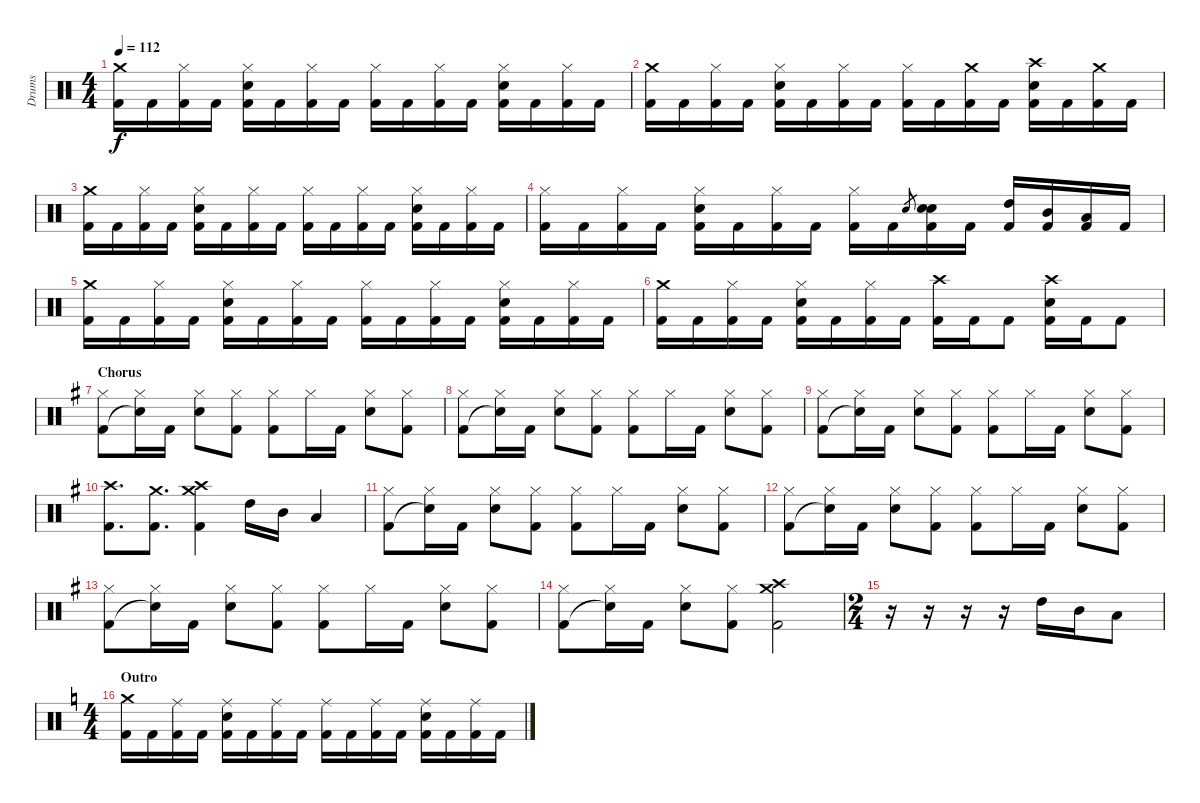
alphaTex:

\track ("Drums" "Drums") {instrument percussion}
\staff {score}
\articulation defaults
\ts (4 4)
\tempo 112
\clef neutral
\ks c
("Kick (hit) 2" "Crash medium (hit)").16{dy f} "Kick (hit) 2".16 ("Kick (hit) 2" "Hi-Hat (closed)").16 "Kick (hit) 2".16 ("Kick (hit) 2" "Hi-Hat (closed)" "Snare (hit) 2").16 "Kick (hit) 2".16 ("Kick (hit) 2" "Hi-Hat (closed)").16 "Kick (hit) 2".16 ("Kick (hit) 2" "Hi-Hat (closed)").16 "Kick (hit) 2".16 ("Kick (hit) 2" "Hi-Hat (closed)").16 "Kick (hit) 2".16 ("Kick (hit) 2" "Hi-Hat (closed)" "Snare (hit) 2").16 "Kick (hit) 2".16 ("Kick (hit) 2" "Hi-Hat (closed)").16 "Kick (hit) 2".16 |
("Kick (hit) 2" "Crash medium (hit)").16 "Kick (hit) 2".16 ("Kick (hit) 2" "Hi-Hat (closed)").16 "Kick (hit) 2".16 ("Kick (hit) 2" "Hi-Hat (closed)" "Snare (hit) 2").16 "Kick (hit) 2".16 ("Kick (hit) 2" "Hi-Hat (closed)").16 "Kick (hit) 2".16 ("Kick (hit) 2" "Hi-Hat (closed)").16 "Kick (hit) 2".16 ("Kick (hit) 2" "Crash medium (hit)").16 "Kick (hit) 2".16 ("Kick (hit) 2" "Crash high (hit)" "Snare (hit) 2").16 "Kick (hit) 2".16 ("Kick (hit) 2" "Crash medium (hit)").16 "Kick (hit) 2".16 |
("Kick (hit) 2" "Crash medium (hit)").16 "Kick (hit) 2".16 ("Kick (hit) 2" "Hi-Hat (closed)").16 "Kick (hit) 2".16 ("Kick (hit) 2" "Hi-Hat (closed)" "Snare (hit) 2").16 "Kick (hit) 2".16 ("Kick (hit) 2" "Hi-Hat (closed)").16 "Kick (hit) 2".16 ("Kick (hit) 2" "Hi-Hat (closed)").16 "Kick (hit) 2".16 ("Kick (hit) 2" "Hi-Hat (closed)").16 "Kick (hit) 2".16 ("Kick (hit) 2" "Hi-Hat (closed)" "Snare (hit) 2").16 "Kick (hit) 2".16 ("Kick (hit) 2" "Hi-Hat (closed)").16 "Kick (hit) 2".16 |
("Kick (hit) 2" "Hi-Hat (closed)").16 "Kick (hit) 2".16 ("Kick (hit) 2" "Hi-Hat (closed)").16 "Kick (hit) 2".16 ("Kick (hit) 2" "Hi-Hat (closed)" "Snare (hit) 2").16 "Kick (hit) 2".16 ("Kick (hit) 2" "Hi-Hat (closed)").16 "Kick (hit) 2".16 ("Kick (hit) 2" "Hi-Hat (closed)").16 "Kick (hit) 2".16 "Snare (hit) 2".8{gr} ("Kick (hit) 2" "Snare (hit) 2" "Snare (hit) 2").16 "Kick (hit) 2".16 ("Kick (hit) 2" "High Tom (hit)").16 ("Kick (hit) 2" "Mid Tom (hit)").16 ("Kick (hit) 2" "Low Tom (hit)").16 "Kick (hit) 2".16 |
("Kick (hit) 2" "Crash medium (hit)").16 "Kick (hit) 2".16 ("Kick (hit) 2" "Hi-Hat (closed)").16 "Kick (hit) 2".16 ("Kick (hit) 2" "Hi-Hat (closed)" "Snare (hit) 2").16 "Kick (hit) 2".16 ("Kick (hit) 2" "Hi-Hat (closed)").16 "Kick (hit) 2".16 ("Kick (hit) 2" "Hi-Hat (closed)").16 "Kick (hit) 2".16 ("Kick (hit) 2" "Hi-Hat (closed)").16 "Kick (hit) 2".16 ("Kick (hit) 2" "Hi-Hat (closed)" "Snare (hit) 2").16 "Kick (hit) 2".16 ("Kick (hit) 2" "Hi-Hat (closed)").16 "Kick (hit) 2".16 |
("Kick (hit) 2" "Crash medium (hit)").16 "Kick (hit) 2".16 ("Kick (hit) 2" "Hi-Hat (closed)").16 "Kick (hit) 2".16 ("Kick (hit) 2" "Hi-Hat (closed)" "Snare (hit) 2").16 "Kick (hit) 2".16 ("Kick (hit) 2" "Hi-Hat (closed)").16 "Kick (hit) 2".16 ("Kick (hit) 2" "Crash high (hit)").16 "Kick (hit) 2".16 "Kick (hit) 2".8 ("Kick (hit) 2" "Crash high (hit)" "Snare (hit) 2").16 "Kick (hit) 2".16 "Kick (hit) 2".8 |
\section ("" "Chorus")
\ks g
("Kick (hit) 2" "Hi-Hat (closed)").8 ("Snare (hit)"{t} "Hi-Hat (closed)").16 "Kick (hit) 2".16 ("Snare (hit) 2" "Hi-Hat (closed)").8 ("Kick (hit) 2" "Hi-Hat (closed)").8 ("Kick (hit) 2" "Hi-Hat (closed)").8 "Hi-Hat (closed)".16 "Kick (hit) 2".16 ("Snare (hit) 2" "Hi-Hat (closed)").8 ("Kick (hit) 2" "Hi-Hat (closed)").8 |
("Kick (hit) 2" "Hi-Hat (closed)").8 ("Snare (hit)"{t} "Hi-Hat (closed)").16 "Kick (hit) 2".16 ("Snare (hit) 2" "Hi-Hat (closed)").8 ("Kick (hit) 2" "Hi-Hat (closed)").8 ("Kick (hit) 2" "Hi-Hat (closed)").8 "Hi-Hat (closed)".16 "Kick (hit) 2".16 ("Snare (hit) 2" "Hi-Hat (closed)").8 ("Kick (hit) 2" "Hi-Hat (closed)").8 |
("Kick (hit) 2" "Hi-Hat (closed)").8 ("Snare (hit)"{t} "Hi-Hat (closed)").16 "Kick (hit) 2".16 ("Snare (hit) 2" "Hi-Hat (closed)").8 ("Kick (hit) 2" "Hi-Hat (closed)").8 ("Kick (hit) 2" "Hi-Hat (closed)").8 "Hi-Hat (closed)".16 "Kick (hit) 2".16 ("Snare (hit) 2" "Hi-Hat (closed)").8 ("Kick (hit) 2" "Hi-Hat (closed)").8 |
("Kick (hit) 2" "Crash high (hit)").8{d} ("Kick (hit) 2" "Crash medium (hit)").8{d} ("Kick (hit) 2" "Crash high (hit)" "Crash medium (hit)").4 "High Tom (hit)".16 "Mid Tom (hit)".16 "Low Tom (hit)".4 |
("Kick (hit) 2" "Hi-Hat (closed)").8 ("Snare (hit)"{t} "Hi-Hat (closed)").16 "Kick (hit) 2".16 ("Snare (hit) 2" "Hi-Hat (closed)").8 ("Kick (hit) 2" "Hi-Hat (closed)").8 ("Kick (hit) 2" "Hi-Hat (closed)").8 "Hi-Hat (closed)".16 "Kick (hit) 2".16 ("Snare (hit) 2" "Hi-Hat (closed)").8 ("Kick (hit) 2" "Hi-Hat (closed)").8 |
("Kick (hit) 2" "Hi-Hat (closed)").8 ("Snare (hit)"{t} "Hi-Hat (closed)").16 "Kick (hit) 2".16 ("Snare (hit) 2" "Hi-Hat (closed)").8 ("Kick (hit) 2" "Hi-Hat (closed)").8 ("Kick (hit) 2" "Hi-Hat (closed)").8 "Hi-Hat (closed)".16 "Kick (hit) 2".16 ("Snare (hit) 2" "Hi-Hat (closed)").8 ("Kick (hit) 2" "Hi-Hat (closed)").8 |
("Kick (hit) 2" "Hi-Hat (closed)").8 ("Snare (hit)"{t} "Hi-Hat (closed)").16 "Kick (hit) 2".16 ("Snare (hit) 2" "Hi-Hat (closed)").8 ("Kick (hit) 2" "Hi-Hat (closed)").8 ("Kick (hit) 2" "Hi-Hat (closed)").8 "Hi-Hat (closed)".16 "Kick (hit) 2".16 ("Snare (hit) 2" "Hi-Hat (closed)").8 ("Kick (hit) 2" "Hi-Hat (closed)").8 |
("Kick (hit) 2" "Hi-Hat (closed)").8 ("Snare (hit)"{t} "Hi-Hat (closed)").16 "Kick (hit) 2".16 ("Snare (hit) 2" "Hi-Hat (closed)").8 ("Kick (hit) 2" "Hi-Hat (closed)").8 ("Kick (hit) 2" "Crash medium (hit)" "Crash high (hit)").2 |
\ts (2 4)
r.16 r.16 r.16 r.16 "High Tom (hit)".16 "Mid Tom (hit)".16 "Low Tom (hit)".8 |
\ts (4 4)
\section ("" "Outro")
\ks c
("Kick (hit) 2" "Crash medium (hit)").16 "Kick (hit) 2".16 ("Kick (hit) 2" "Ride (middle)").16 "Kick (hit) 2".16 ("Kick (hit) 2" "Snare (hit) 2" "Ride (middle)").16 "Kick (hit) 2".16 ("Kick (hit) 2" "Ride (middle)").16 "Kick (hit) 2".16 ("Kick (hit) 2" "Ride (middle)").16 "Kick (hit) 2".16 ("Kick (hit) 2" "Ride (middle)").16 "Kick (hit) 2".16 ("Kick (hit) 2" "Snare (hit) 2" "Ride (middle)").16 "Kick (hit) 2".16 ("Kick (hit) 2" "Ride (middle)").16 "Kick (hit) 2".16
